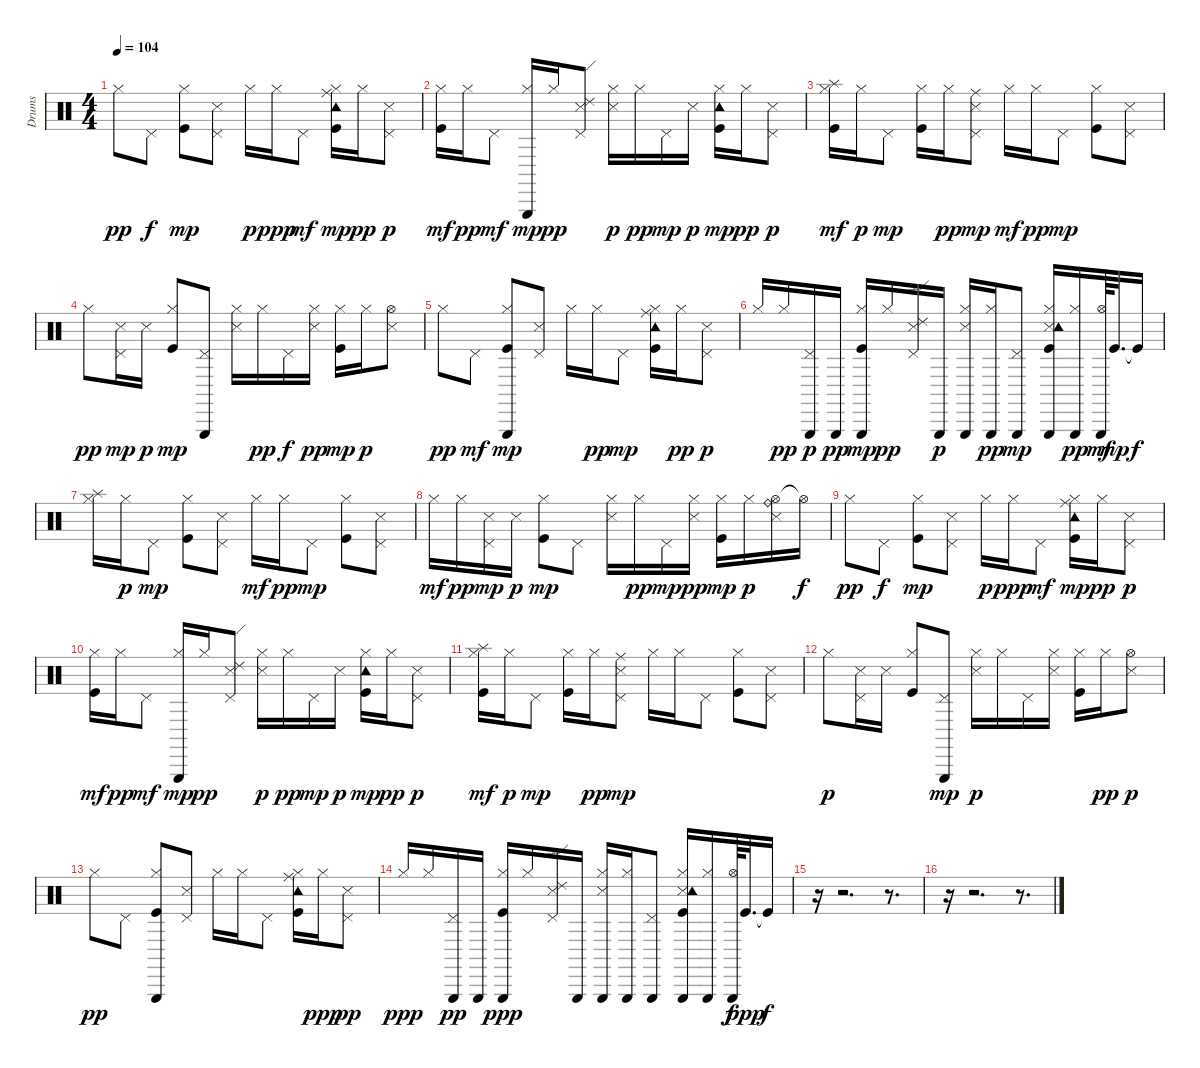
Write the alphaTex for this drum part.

\track ("Drums" "Drums") {instrument percussion}
\staff {score}
\articulation defaults
\ts (4 4)
\tempo 104
\clef neutral
\ks c "Hi-Hat (closed)".8{dy pp} "Pedal Hi-Hat (hit)".8{dy f}
("Hi-Hat (closed)" "Kick (hit)").8{dy mp} ("Pedal Hi-Hat (hit)" "Snare (side stick) 3").8 "Hi-Hat (closed)".16{dy p} "Hi-Hat (closed)".16{dy ppp} "Pedal Hi-Hat (hit)".8{dy mf} ("Hi-Hat (closed)" "Ride (middle)" "Tambourine (hit)" "Kick (hit)").16{dy mp} "Hi-Hat (closed)".16{dy pp} ("Pedal Hi-Hat (hit)" "Snare (side stick) 3").8{dy p} |
("Hi-Hat (closed)" "Kick (hit)").16{dy mf} "Hi-Hat (closed)".16{dy pp} "Pedal Hi-Hat (hit)".8{dy mf} ("Hi-Hat (closed)" "Triangle (hit)").16{dy mp} "Hi-Hat (closed)".16{dy pp} ("Pedal Hi-Hat (hit)" "Ride (edge) 2" "Snare (side stick) 3").8 ("Hi-Hat (closed)" "Snare (side stick) 3").16{dy p} "Hi-Hat (closed)".16{dy pp} "Pedal Hi-Hat (hit)".16{dy mp} "Snare (side stick) 3".16{dy p} ("Hi-Hat (closed)" "Tambourine (hit)" "Kick (hit)").16{dy mp} "Hi-Hat (closed)".16{dy pp} ("Pedal Hi-Hat (hit)" "Snare (side stick) 3").8{dy p} |
("Hi-Hat (closed)" "Splash (hit)" "Kick (hit)").16{dy mf} "Hi-Hat (closed)".16{dy p} "Pedal Hi-Hat (hit)".8{dy mp} ("Hi-Hat (closed)" "Kick (hit)").16 "Hi-Hat (closed)".16{dy pp} ("Pedal Hi-Hat (hit)" "Ride (middle)" "Snare (side stick) 3").8{dy mp} "Hi-Hat (closed)".16{dy mf} "Hi-Hat (closed)".16{dy pp} "Pedal Hi-Hat (hit)".8{dy mp} ("Hi-Hat (closed)" "Kick (hit)").8 ("Pedal Hi-Hat (hit)" "Snare (side stick) 3").8 |
"Hi-Hat (closed)".8{dy pp} ("Pedal Hi-Hat (hit)" "Snare (side stick) 3").16{dy mp} "Snare (side stick) 3".16{dy p} ("Hi-Hat (closed)" "Kick (hit)").8{dy mp} ("Pedal Hi-Hat (hit)" "Triangle (hit)").8 ("Hi-Hat (closed)" "Snare (side stick) 3").16 "Hi-Hat (closed)".16{dy pp} "Pedal Hi-Hat (hit)".16{dy f} ("Hi-Hat (closed)" "Snare (side stick) 3").16{dy pp} ("Hi-Hat (closed)" "Kick (hit)").16{dy mp} "Hi-Hat (closed)".16{dy p} ("Hi-Hat (open)" "Snare (side stick) 3").8 |
"Hi-Hat (closed)".8{dy pp} "Pedal Hi-Hat (hit)".8{dy mf} ("Hi-Hat (closed)" "Triangle (hit)" "Kick (hit)").8{dy mp} ("Pedal Hi-Hat (hit)" "Snare (side stick) 3").8 "Hi-Hat (closed)".16 "Hi-Hat (closed)".16{dy pp} "Pedal Hi-Hat (hit)".8{dy mp} ("Hi-Hat (closed)" "Ride (middle)" "Tambourine (hit)" "Kick (hit)").16 "Hi-Hat (closed)".16{dy pp} ("Pedal Hi-Hat (hit)" "Snare (side stick) 3").8{dy p} |
"Hi-Hat (closed)".16 "Hi-Hat (closed)".16{dy pp} ("Pedal Hi-Hat (hit)" "Triangle (hit)").16{dy p} "Triangle (hit)".16{dy pp} ("Hi-Hat (closed)" "Triangle (hit)" "Kick (hit)").16{dy mp} "Hi-Hat (closed)".16{dy pp} ("Pedal Hi-Hat (hit)" "Ride (edge) 2" "Snare (side stick) 3").16 "Triangle (hit)".16{dy p} ("Hi-Hat (closed)" "Snare (side stick) 3" "Triangle (hit)").16 ("Hi-Hat (closed)" "Triangle (hit)").16{dy pp} ("Pedal Hi-Hat (hit)" "Triangle (hit)").8{dy mp} ("Hi-Hat (closed)" "Snare (side stick) 3" "Tambourine (hit)" "Triangle (hit)" "Kick (hit)").16 ("Hi-Hat (closed)" "Triangle (hit)").16{dy pp} ("Hi-Hat (open)" "Triangle (hit)").64{dy mf} "Kick (hit)".32{d dy mp} "Kick (hit)"{t}.16{dy f} |
("Hi-Hat (closed)" "Splash (hit)").16 "Hi-Hat (closed)".16{dy p} "Pedal Hi-Hat (hit)".8{dy mp} ("Hi-Hat (closed)" "Kick (hit)").8 ("Pedal Hi-Hat (hit)" "Snare (side stick) 3").8 "Hi-Hat (closed)".16{dy mf} "Hi-Hat (closed)".16{dy pp} "Pedal Hi-Hat (hit)".8{dy mp} ("Hi-Hat (closed)" "Kick (hit)").8 ("Pedal Hi-Hat (hit)" "Snare (side stick) 3").8 |
"Hi-Hat (closed)".16{dy mf} "Hi-Hat (closed)".16{dy pp} ("Pedal Hi-Hat (hit)" "Snare (side stick) 3").16{dy mp} "Snare (side stick) 3".16{dy p} ("Hi-Hat (closed)" "Kick (hit)").8{dy mp} "Pedal Hi-Hat (hit)".8 ("Hi-Hat (closed)" "Snare (side stick) 3").16 "Hi-Hat (closed)".16{dy pp} "Pedal Hi-Hat (hit)".16{dy mp} ("Hi-Hat (closed)" "Snare (side stick) 3").16{dy pp} ("Hi-Hat (closed)" "Kick (hit)").16{dy mp} "Hi-Hat (closed)".16{dy p} ("Hi-Hat (open)" "Snare (side stick) 3" "Ride (bell)").16 "Hi-Hat (open)"{t}.16{dy f} |
"Hi-Hat (closed)".8{dy pp} "Pedal Hi-Hat (hit)".8{dy f} ("Hi-Hat (closed)" "Kick (hit)").8{dy mp} ("Pedal Hi-Hat (hit)" "Snare (side stick) 3").8 "Hi-Hat (closed)".16{dy p} "Hi-Hat (closed)".16{dy ppp} "Pedal Hi-Hat (hit)".8{dy mf} ("Hi-Hat (closed)" "Ride (middle)" "Tambourine (hit)" "Kick (hit)").16{dy mp} "Hi-Hat (closed)".16{dy pp} ("Pedal Hi-Hat (hit)" "Snare (side stick) 3").8{dy p} |
("Hi-Hat (closed)" "Kick (hit)").16{dy mf} "Hi-Hat (closed)".16{dy pp} "Pedal Hi-Hat (hit)".8{dy mf} ("Hi-Hat (closed)" "Triangle (hit)").16{dy mp} "Hi-Hat (closed)".16{dy pp} ("Pedal Hi-Hat (hit)" "Ride (edge) 2" "Snare (side stick) 3").8 ("Hi-Hat (closed)" "Snare (side stick) 3").16{dy p} "Hi-Hat (closed)".16{dy pp} "Pedal Hi-Hat (hit)".16{dy mp} "Snare (side stick) 3".16{dy p} ("Hi-Hat (closed)" "Tambourine (hit)" "Kick (hit)").16{dy mp} "Hi-Hat (closed)".16{dy pp} ("Pedal Hi-Hat (hit)" "Snare (side stick) 3").8{dy p} |
("Hi-Hat (closed)" "Splash (hit)" "Kick (hit)").16{dy mf} "Hi-Hat (closed)".16{dy p} "Pedal Hi-Hat (hit)".8{dy mp} ("Hi-Hat (closed)" "Kick (hit)").16 "Hi-Hat (closed)".16{dy pp} ("Pedal Hi-Hat (hit)" "Ride (middle)" "Snare (side stick) 3").8{dy mp} "Hi-Hat (closed)".16 "Hi-Hat (closed)".16 "Pedal Hi-Hat (hit)".8 ("Hi-Hat (closed)" "Kick (hit)").8 ("Pedal Hi-Hat (hit)" "Snare (side stick) 3").8 |
"Hi-Hat (closed)".8{dy p} ("Pedal Hi-Hat (hit)" "Snare (side stick) 3").16 "Snare (side stick) 3".16 ("Hi-Hat (closed)" "Kick (hit)").8 ("Pedal Hi-Hat (hit)" "Triangle (hit)").8{dy mp} ("Hi-Hat (closed)" "Snare (side stick) 3").16{dy p} "Hi-Hat (closed)".16 "Pedal Hi-Hat (hit)".16 ("Hi-Hat (closed)" "Snare (side stick) 3").16 ("Hi-Hat (closed)" "Kick (hit)").16 "Hi-Hat (closed)".16{dy pp} ("Hi-Hat (open)" "Snare (side stick) 3").8{dy p} |
"Hi-Hat (closed)".8{dy pp} "Pedal Hi-Hat (hit)".8 ("Hi-Hat (closed)" "Triangle (hit)" "Kick (hit)").8 ("Pedal Hi-Hat (hit)" "Snare (side stick) 3").8 "Hi-Hat (closed)".16 "Hi-Hat (closed)".16 "Pedal Hi-Hat (hit)".8 ("Hi-Hat (closed)" "Ride (middle)" "Tambourine (hit)" "Kick (hit)").16 "Hi-Hat (closed)".16{dy ppp} ("Pedal Hi-Hat (hit)" "Snare (side stick) 3").8{dy pp} |
"Hi-Hat (closed)".16{dy ppp} "Hi-Hat (closed)".16 ("Pedal Hi-Hat (hit)" "Triangle (hit)").16{dy pp} "Triangle (hit)".16 ("Hi-Hat (closed)" "Triangle (hit)" "Kick (hit)").16{dy ppp} "Hi-Hat (closed)".16 ("Pedal Hi-Hat (hit)" "Ride (edge) 2" "Snare (side stick) 3").16 "Triangle (hit)".16 ("Hi-Hat (closed)" "Snare (side stick) 3" "Triangle (hit)").16 ("Hi-Hat (closed)" "Triangle (hit)").16 ("Pedal Hi-Hat (hit)" "Triangle (hit)").8 ("Hi-Hat (closed)" "Snare (side stick) 3" "Tambourine (hit)" "Triangle (hit)" "Kick (hit)").16 ("Hi-Hat (closed)" "Triangle (hit)").16 ("Hi-Hat (open)" "Triangle (hit)").64{dy f} "Kick (hit)".32{d dy ppp} "Kick (hit)"{t}.16{dy f} |
r.16 r.2{d} r.8{d} |
r.16 r.2{d} r.8{d}
